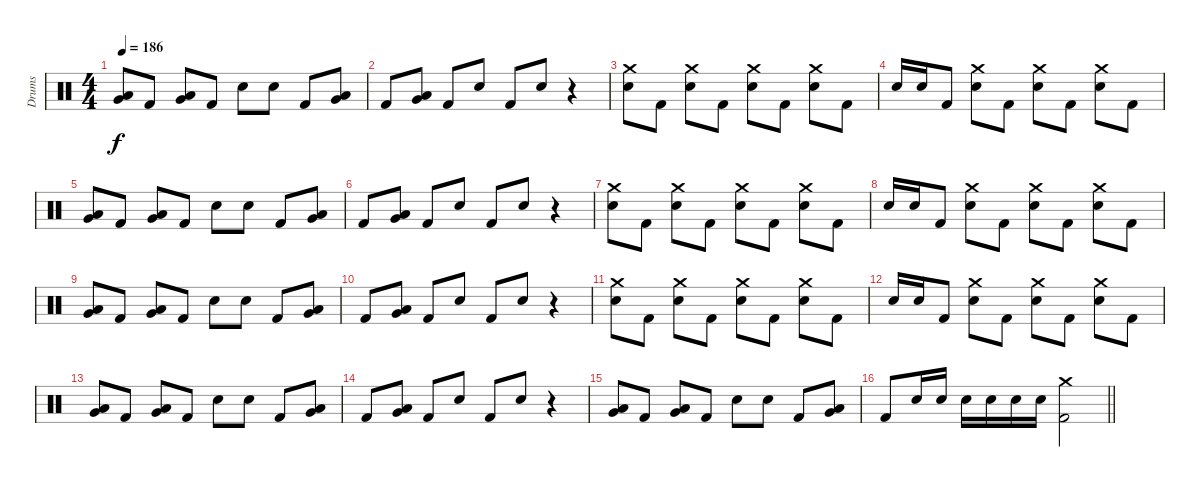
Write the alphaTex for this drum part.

\track ("Drums" "Drums") {instrument percussion}
\staff {score}
\articulation defaults
\ts (4 4)
\tempo 186
\clef neutral
\ks c
("Low Tom (hit)" "Very Low Tom (hit)").8{dy f} "Kick (hit) 2".8 ("Very Low Tom (hit)" "Low Floor Tom (hit)").8 "Kick (hit) 2".8 "Electric Snare (hit)".8 "Electric Snare (hit)".8 "Kick (hit) 2".8 ("Low Tom (hit)" "Very Low Tom (hit)").8 |
"Kick (hit) 2".8 ("Very Low Tom (hit)" "Low Floor Tom (hit)").8 "Kick (hit) 2".8 "Electric Snare (hit)".8 "Kick (hit) 2".8 "Electric Snare (hit)".8 r.4 |
("Crash medium (hit)" "Electric Snare (hit)").8 "Kick (hit) 2".8 ("Crash medium (hit)" "Electric Snare (hit)").8 "Kick (hit) 2".8 ("Crash medium (hit)" "Electric Snare (hit)").8 "Kick (hit) 2".8 ("Crash medium (hit)" "Electric Snare (hit)").8 "Kick (hit) 2".8 |
"Electric Snare (hit)".16 "Electric Snare (hit)".16 "Kick (hit) 2".8 ("Crash medium (hit)" "Electric Snare (hit)").8 "Kick (hit) 2".8 ("Crash medium (hit)" "Electric Snare (hit)").8 "Kick (hit) 2".8 ("Crash medium (hit)" "Electric Snare (hit)").8 "Kick (hit) 2".8 |
("Low Tom (hit)" "Very Low Tom (hit)").8 "Kick (hit) 2".8 ("Very Low Tom (hit)" "Low Floor Tom (hit)").8 "Kick (hit) 2".8 "Electric Snare (hit)".8 "Electric Snare (hit)".8 "Kick (hit) 2".8 ("Low Tom (hit)" "Very Low Tom (hit)").8 |
"Kick (hit) 2".8 ("Very Low Tom (hit)" "Low Floor Tom (hit)").8 "Kick (hit) 2".8 "Electric Snare (hit)".8 "Kick (hit) 2".8 "Electric Snare (hit)".8 r.4 |
("Crash medium (hit)" "Electric Snare (hit)").8 "Kick (hit) 2".8 ("Crash medium (hit)" "Electric Snare (hit)").8 "Kick (hit) 2".8 ("Crash medium (hit)" "Electric Snare (hit)").8 "Kick (hit) 2".8 ("Crash medium (hit)" "Electric Snare (hit)").8 "Kick (hit) 2".8 |
"Electric Snare (hit)".16 "Electric Snare (hit)".16 "Kick (hit) 2".8 ("Crash medium (hit)" "Electric Snare (hit)").8 "Kick (hit) 2".8 ("Crash medium (hit)" "Electric Snare (hit)").8 "Kick (hit) 2".8 ("Crash medium (hit)" "Electric Snare (hit)").8 "Kick (hit) 2".8 |
("Low Tom (hit)" "Very Low Tom (hit)").8 "Kick (hit) 2".8 ("Very Low Tom (hit)" "Low Floor Tom (hit)").8 "Kick (hit) 2".8 "Electric Snare (hit)".8 "Electric Snare (hit)".8 "Kick (hit) 2".8 ("Low Tom (hit)" "Very Low Tom (hit)").8 |
"Kick (hit) 2".8 ("Very Low Tom (hit)" "Low Floor Tom (hit)").8 "Kick (hit) 2".8 "Electric Snare (hit)".8 "Kick (hit) 2".8 "Electric Snare (hit)".8 r.4 |
("Crash medium (hit)" "Electric Snare (hit)").8 "Kick (hit) 2".8 ("Crash medium (hit)" "Electric Snare (hit)").8 "Kick (hit) 2".8 ("Crash medium (hit)" "Electric Snare (hit)").8 "Kick (hit) 2".8 ("Crash medium (hit)" "Electric Snare (hit)").8 "Kick (hit) 2".8 |
"Electric Snare (hit)".16 "Electric Snare (hit)".16 "Kick (hit) 2".8 ("Crash medium (hit)" "Electric Snare (hit)").8 "Kick (hit) 2".8 ("Crash medium (hit)" "Electric Snare (hit)").8 "Kick (hit) 2".8 ("Crash medium (hit)" "Electric Snare (hit)").8 "Kick (hit) 2".8 |
("Low Tom (hit)" "Very Low Tom (hit)").8 "Kick (hit) 2".8 ("Very Low Tom (hit)" "Low Floor Tom (hit)").8 "Kick (hit) 2".8 "Electric Snare (hit)".8 "Electric Snare (hit)".8 "Kick (hit) 2".8 ("Low Tom (hit)" "Very Low Tom (hit)").8 |
"Kick (hit) 2".8 ("Very Low Tom (hit)" "Low Floor Tom (hit)").8 "Kick (hit) 2".8 "Electric Snare (hit)".8 "Kick (hit) 2".8 "Electric Snare (hit)".8 r.4 |
("Low Tom (hit)" "Very Low Tom (hit)").8 "Kick (hit) 2".8 ("Very Low Tom (hit)" "Low Floor Tom (hit)").8 "Kick (hit) 2".8 "Electric Snare (hit)".8 "Electric Snare (hit)".8 "Kick (hit) 2".8 ("Low Tom (hit)" "Very Low Tom (hit)").8 |
\barLineRight lightlight "Kick (hit) 2".8 "Electric Snare (hit)".16 "Electric Snare (hit)".16 "Electric Snare (hit)".16 "Electric Snare (hit)".16 "Electric Snare (hit)".16 "Electric Snare (hit)".16
("Crash medium (hit)" "Kick (hit) 2").2
